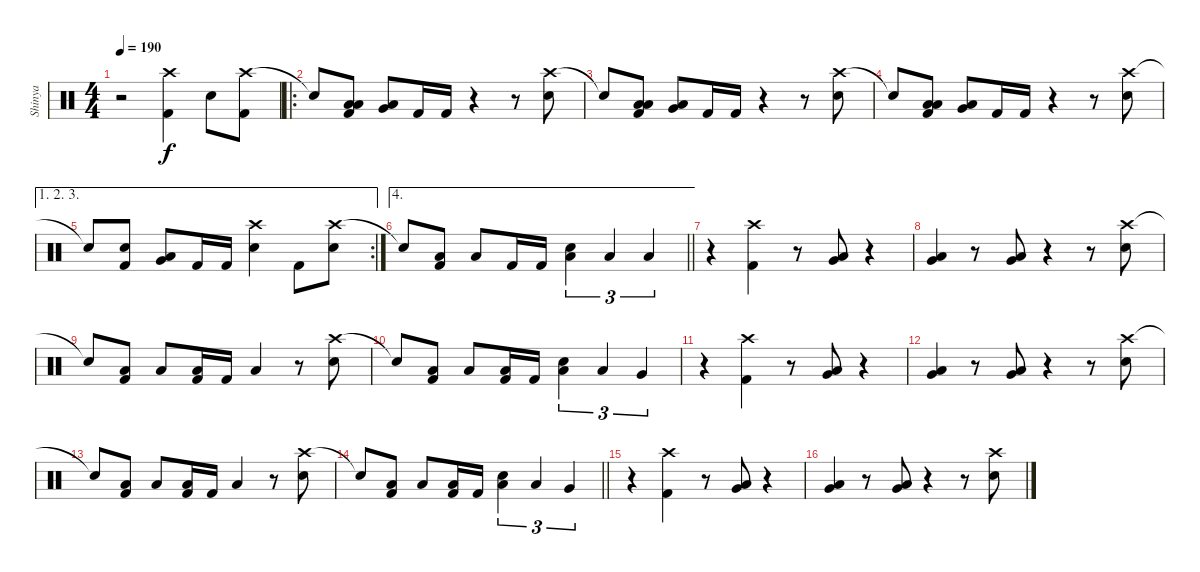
\track ("Shinya" "Shinya") {instrument percussion}
\staff {score}
\articulation defaults
\ts (4 4)
\tempo 190
\clef neutral
\ks c
r.2{dy f} ("Crash high (hit)" "Kick (hit) 2").4 "Electric Snare (hit)".8 ("Crash high (hit)" "Kick (hit) 2").8 |
\ro "Snare (hit)"{t}.8
("Low Tom (hit)" "Low Floor Tom (hit)" "Kick (hit) 2").8 ("Very Low Tom (hit)" "Low Floor Tom (hit)").8 "Kick (hit) 2".16 "Kick (hit) 2".16 r.4 r.8 ("Crash high (hit)" "Electric Snare (hit)").8 |
"Snare (hit)"{t}.8 ("Low Tom (hit)" "Low Floor Tom (hit)" "Kick (hit) 2").8 ("Very Low Tom (hit)" "Low Floor Tom (hit)").8 "Kick (hit) 2".16 "Kick (hit) 2".16 r.4 r.8 ("Crash high (hit)" "Electric Snare (hit)").8 |
"Snare (hit)"{t}.8 ("Low Tom (hit)" "Low Floor Tom (hit)" "Kick (hit) 2").8 ("Very Low Tom (hit)" "Low Floor Tom (hit)").8 "Kick (hit) 2".16 "Kick (hit) 2".16 r.4 r.8 ("Crash high (hit)" "Electric Snare (hit)").8 |
\ae (1 2 3)
\rc 2 "Snare (hit)"{t}.8
("Electric Snare (hit)" "Kick (hit) 2").8 ("Very Low Tom (hit)" "Low Floor Tom (hit)").8 "Kick (hit) 2".16 "Kick (hit) 2".16 ("Crash high (hit)" "Electric Snare (hit)").4 "Kick (hit) 2".8 ("Crash high (hit)" "Electric Snare (hit)").8 |
\ae 4
\barLineRight lightlight "Snare (hit)"{t}.8
("Low Floor Tom (hit)" "Kick (hit) 2").8 "Low Floor Tom (hit)".8 "Kick (hit) 2".16 "Kick (hit) 2".16 ("Low Floor Tom (hit)" "Electric Snare (hit)").4{tu (3 2)} "Low Tom (hit)".4{tu (3 2)} "Low Floor Tom (hit)".4{tu (3 2)} |
r.4 ("Crash high (hit)" "Kick (hit) 2").4 r.8 ("Low Tom (hit)" "Very Low Tom (hit)").8 r.4 |
("Very Low Tom (hit)" "Low Floor Tom (hit)").4 r.8 ("Very Low Tom (hit)" "Low Floor Tom (hit)").8 r.4 r.8 ("Crash high (hit)" "Electric Snare (hit)").8 |
"Snare (hit)"{t}.8 ("Low Floor Tom (hit)" "Kick (hit) 2").8 "Low Floor Tom (hit)".8 ("Low Floor Tom (hit)" "Kick (hit) 2").16 "Kick (hit) 2".16 "Low Floor Tom (hit)".4 r.8 ("Crash high (hit)" "Electric Snare (hit)").8 |
"Snare (hit)"{t}.8 ("Low Floor Tom (hit)" "Kick (hit) 2").8 "Low Floor Tom (hit)".8 ("Low Floor Tom (hit)" "Kick (hit) 2").16 "Kick (hit) 2".16 ("Low Floor Tom (hit)" "Electric Snare (hit)").4{tu (3 2)} "Low Tom (hit)".4{tu (3 2)} "Very Low Tom (hit)".4{tu (3 2)} |
r.4 ("Crash high (hit)" "Kick (hit) 2").4 r.8 ("Low Tom (hit)" "Very Low Tom (hit)").8 r.4 |
("Very Low Tom (hit)" "Low Floor Tom (hit)").4 r.8 ("Very Low Tom (hit)" "Low Floor Tom (hit)").8 r.4 r.8 ("Crash high (hit)" "Electric Snare (hit)").8 |
"Snare (hit)"{t}.8 ("Low Floor Tom (hit)" "Kick (hit) 2").8 "Low Floor Tom (hit)".8 ("Low Floor Tom (hit)" "Kick (hit) 2").16 "Kick (hit) 2".16 "Low Floor Tom (hit)".4 r.8 ("Crash high (hit)" "Electric Snare (hit)").8 |
\barLineRight lightlight "Snare (hit)"{t}.8
("Low Floor Tom (hit)" "Kick (hit) 2").8 "Low Floor Tom (hit)".8 ("Low Floor Tom (hit)" "Kick (hit) 2").16 "Kick (hit) 2".16 ("Low Floor Tom (hit)" "Electric Snare (hit)").4{tu (3 2)} "Low Tom (hit)".4{tu (3 2)} "Very Low Tom (hit)".4{tu (3 2)} |
r.4 ("Crash high (hit)" "Kick (hit) 2").4 r.8 ("Low Tom (hit)" "Very Low Tom (hit)").8 r.4 |
("Very Low Tom (hit)" "Low Floor Tom (hit)").4 r.8 ("Very Low Tom (hit)" "Low Floor Tom (hit)").8 r.4 r.8 ("Crash high (hit)" "Electric Snare (hit)").8
